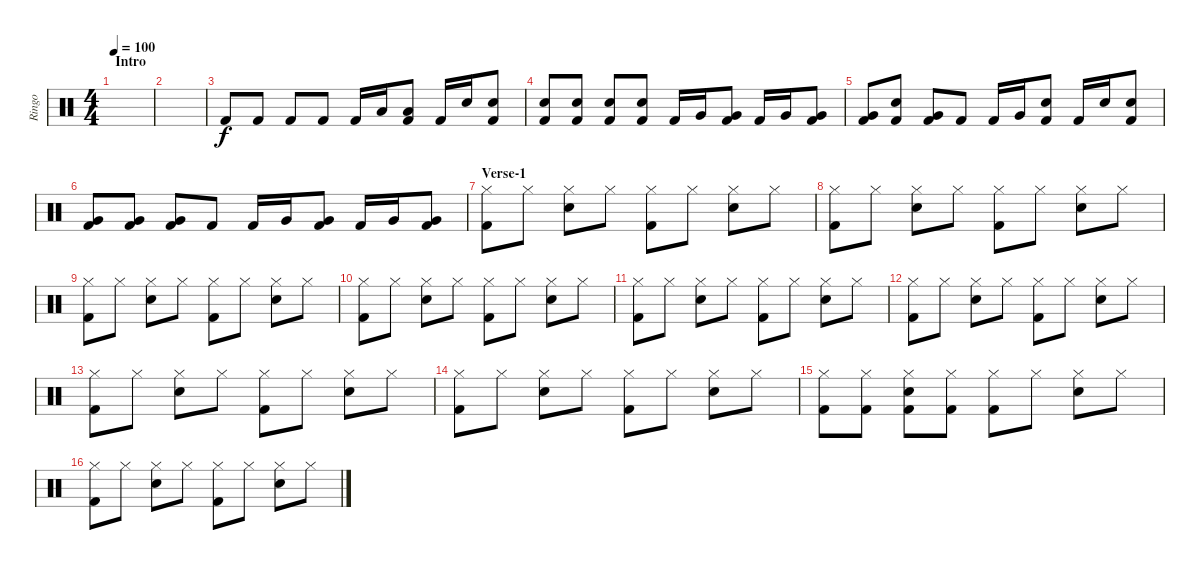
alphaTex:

\track ("Ringo" "Ringo") {instrument percussion}
\staff {score}
\articulation defaults
\ts (4 4)
\section ("" "Intro")
\tempo 100
\clef neutral
\ks c
|
|
"Kick (hit) 2".8 "Kick (hit) 2".8 "Kick (hit) 2".8 "Kick (hit) 2".8 "Kick (hit) 2".16 "Low Tom (hit)".16 ("Low Tom (hit)" "Kick (hit) 2").8 "Kick (hit) 2".16 "Electric Snare (hit)".16 ("Electric Snare (hit)" "Kick (hit) 2").8 |
("Electric Snare (hit)" "Kick (hit) 2").8 ("Snare (hit)" "Kick (hit) 2").8 ("Snare (hit)" "Kick (hit) 2").8 ("Electric Snare (hit)" "Kick (hit) 2").8 "Kick (hit) 2".16 "Very Low Tom (hit)".16 ("Very Low Tom (hit)" "Kick (hit) 2").8 "Kick (hit) 2".16 "Very Low Tom (hit)".16 ("Very Low Tom (hit)" "Kick (hit) 2").8 |
("Very Low Tom (hit)" "Kick (hit) 2").8 ("Electric Snare (hit)" "Kick (hit) 2").8 ("Very Low Tom (hit)" "Kick (hit) 2").8 "Kick (hit) 2".8 "Kick (hit) 2".16 "Very Low Tom (hit)".16 ("Electric Snare (hit)" "Kick (hit) 2").8 "Kick (hit) 2".16 "Electric Snare (hit)".16 ("Electric Snare (hit)" "Kick (hit) 2").8 |
("Very Low Tom (hit)" "Kick (hit) 2").8 ("Very Low Tom (hit)" "Kick (hit) 2").8 ("Very Low Tom (hit)" "Kick (hit) 2").8 "Kick (hit) 2".8 "Kick (hit) 2".16 "Very Low Tom (hit)".16 ("Very Low Tom (hit)" "Kick (hit) 2").8 "Kick (hit) 2".16 "Very Low Tom (hit)".16 ("Very Low Tom (hit)" "Kick (hit) 2").8 |
\section ("" "Verse-1")
("Hi-Hat (closed)" "Kick (hit) 2").8 "Hi-Hat (closed)".8 ("Hi-Hat (closed)" "Electric Snare (hit)").8 "Hi-Hat (closed)".8 ("Hi-Hat (closed)" "Kick (hit) 2").8 "Hi-Hat (closed)".8 ("Hi-Hat (closed)" "Electric Snare (hit)").8 "Hi-Hat (closed)".8 |
("Hi-Hat (closed)" "Kick (hit) 2").8 "Hi-Hat (closed)".8 ("Hi-Hat (closed)" "Electric Snare (hit)").8 "Hi-Hat (closed)".8 ("Hi-Hat (closed)" "Kick (hit) 2").8 "Hi-Hat (closed)".8 ("Hi-Hat (closed)" "Electric Snare (hit)").8 "Hi-Hat (closed)".8 |
("Hi-Hat (closed)" "Kick (hit) 2").8 "Hi-Hat (closed)".8 ("Hi-Hat (closed)" "Electric Snare (hit)").8 "Hi-Hat (closed)".8 ("Hi-Hat (closed)" "Kick (hit) 2").8 "Hi-Hat (closed)".8 ("Hi-Hat (closed)" "Electric Snare (hit)").8 "Hi-Hat (closed)".8 |
("Hi-Hat (closed)" "Kick (hit) 2").8 "Hi-Hat (closed)".8 ("Hi-Hat (closed)" "Electric Snare (hit)").8 "Hi-Hat (closed)".8 ("Hi-Hat (closed)" "Kick (hit) 2").8 "Hi-Hat (closed)".8 ("Hi-Hat (closed)" "Electric Snare (hit)").8 "Hi-Hat (closed)".8 |
("Hi-Hat (closed)" "Kick (hit) 2").8 "Hi-Hat (closed)".8 ("Hi-Hat (closed)" "Electric Snare (hit)").8 "Hi-Hat (closed)".8 ("Hi-Hat (closed)" "Kick (hit) 2").8 "Hi-Hat (closed)".8 ("Hi-Hat (closed)" "Electric Snare (hit)").8 "Hi-Hat (closed)".8 |
("Hi-Hat (closed)" "Kick (hit) 2").8 "Hi-Hat (closed)".8 ("Hi-Hat (closed)" "Electric Snare (hit)").8 "Hi-Hat (closed)".8 ("Hi-Hat (closed)" "Kick (hit) 2").8 "Hi-Hat (closed)".8 ("Hi-Hat (closed)" "Electric Snare (hit)").8 "Hi-Hat (closed)".8 |
("Hi-Hat (closed)" "Kick (hit) 2").8 "Hi-Hat (closed)".8 ("Hi-Hat (closed)" "Electric Snare (hit)").8 "Hi-Hat (closed)".8 ("Hi-Hat (closed)" "Kick (hit) 2").8 "Hi-Hat (closed)".8 ("Hi-Hat (closed)" "Electric Snare (hit)").8 "Hi-Hat (closed)".8 |
("Hi-Hat (closed)" "Kick (hit) 2").8 "Hi-Hat (closed)".8 ("Hi-Hat (closed)" "Electric Snare (hit)").8 "Hi-Hat (closed)".8 ("Hi-Hat (closed)" "Kick (hit) 2").8 "Hi-Hat (closed)".8 ("Hi-Hat (closed)" "Electric Snare (hit)").8 "Hi-Hat (closed)".8 |
("Hi-Hat (closed)" "Kick (hit) 2").8 ("Hi-Hat (closed)" "Kick (hit) 2").8 ("Hi-Hat (closed)" "Electric Snare (hit)" "Kick (hit) 2").8 ("Hi-Hat (closed)" "Kick (hit) 2").8 ("Hi-Hat (closed)" "Kick (hit) 2").8 "Hi-Hat (closed)".8 ("Hi-Hat (closed)" "Electric Snare (hit)").8 "Hi-Hat (closed)".8 |
("Hi-Hat (closed)" "Kick (hit) 2").8 "Hi-Hat (closed)".8 ("Hi-Hat (closed)" "Electric Snare (hit)").8 "Hi-Hat (closed)".8 ("Hi-Hat (closed)" "Kick (hit) 2").8 "Hi-Hat (closed)".8 ("Hi-Hat (closed)" "Electric Snare (hit)").8 "Hi-Hat (closed)".8
